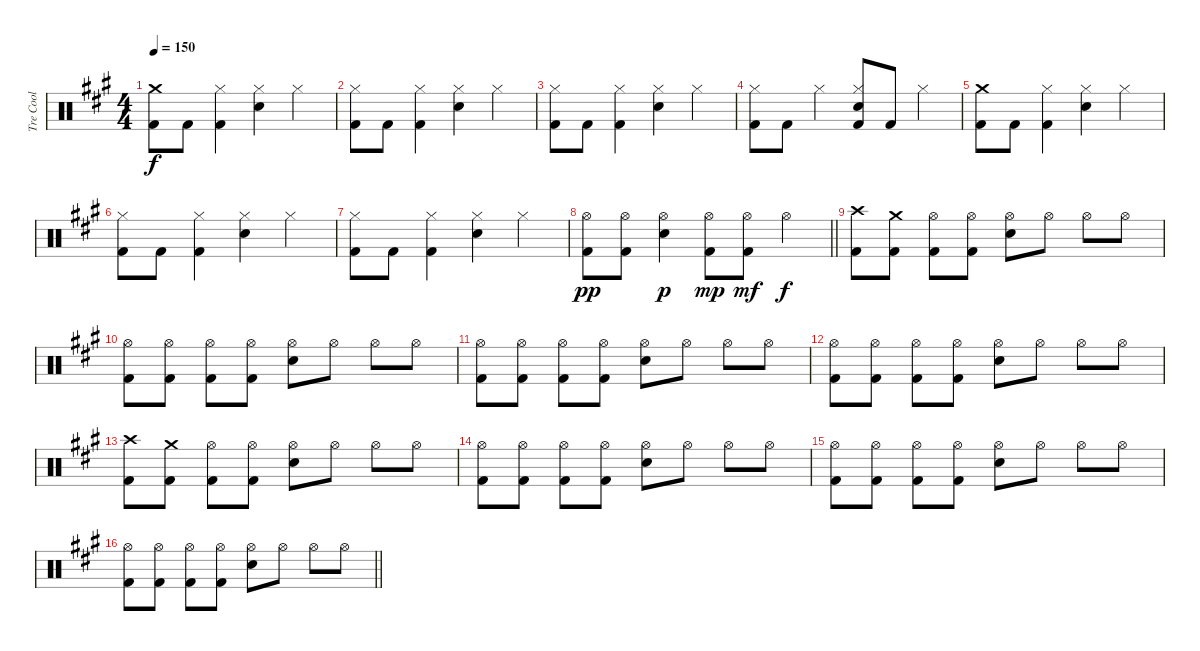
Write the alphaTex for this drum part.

\track ("Tre Cool" "Tre Cool") {instrument percussion}
\staff {score}
\articulation defaults
\ts (4 4)
\tempo 150
\clef neutral
\ks a
("Crash medium (hit)" "Kick (hit) 2").8{dy f} "Kick (hit) 2".8 ("Hi-Hat (closed)" "Kick (hit) 2").4 ("Hi-Hat (closed)" "Snare (hit) 2").4 "Hi-Hat (closed)".4 |
("Hi-Hat (closed)" "Kick (hit) 2").8 "Kick (hit) 2".8 ("Hi-Hat (closed)" "Kick (hit) 2").4 ("Hi-Hat (closed)" "Snare (hit) 2").4 "Hi-Hat (closed)".4 |
("Hi-Hat (closed)" "Kick (hit) 2").8 "Kick (hit) 2".8 ("Hi-Hat (closed)" "Kick (hit) 2").4 ("Hi-Hat (closed)" "Snare (hit) 2").4 "Hi-Hat (closed)".4 |
("Hi-Hat (closed)" "Kick (hit) 2").8 "Kick (hit) 2".8 "Hi-Hat (closed)".4 ("Hi-Hat (closed)" "Snare (hit) 2" "Kick (hit) 2").8 "Kick (hit) 2".8 "Hi-Hat (closed)".4 |
("Crash medium (hit)" "Kick (hit) 2").8 "Kick (hit) 2".8 ("Hi-Hat (closed)" "Kick (hit) 2").4 ("Hi-Hat (closed)" "Snare (hit) 2").4 "Hi-Hat (closed)".4 |
("Hi-Hat (closed)" "Kick (hit) 2").8 "Kick (hit) 2".8 ("Hi-Hat (closed)" "Kick (hit) 2").4 ("Hi-Hat (closed)" "Snare (hit) 2").4 "Hi-Hat (closed)".4 |
("Hi-Hat (closed)" "Kick (hit) 2").8 "Kick (hit) 2".8 ("Hi-Hat (closed)" "Kick (hit) 2").4 ("Hi-Hat (closed)" "Snare (hit) 2").4 "Hi-Hat (closed)".4 |
\barLineRight lightlight
("Hi-Hat (open)" "Kick (hit) 2").8{dy pp} ("Hi-Hat (open)" "Kick (hit) 2").8 ("Hi-Hat (open)" "Snare (hit) 2").4{dy p} ("Hi-Hat (open)" "Kick (hit) 2").8{dy mp} ("Hi-Hat (open)" "Kick (hit) 2").8{dy mf} "Hi-Hat (open)".4{dy f} |
("Crash high (hit)" "Kick (hit) 2").8 ("Crash medium (hit)" "Kick (hit) 2").8 ("Hi-Hat (open)" "Kick (hit) 2").8 ("Hi-Hat (open)" "Kick (hit) 2").8 ("Hi-Hat (open)" "Snare (hit) 2").8 "Hi-Hat (open)".8 "Hi-Hat (open)".8 "Hi-Hat (open)".8 |
("Hi-Hat (open)" "Kick (hit) 2").8 ("Hi-Hat (open)" "Kick (hit) 2").8 ("Hi-Hat (open)" "Kick (hit) 2").8 ("Hi-Hat (open)" "Kick (hit) 2").8 ("Hi-Hat (open)" "Snare (hit) 2").8 "Hi-Hat (open)".8 "Hi-Hat (open)".8 "Hi-Hat (open)".8 |
("Hi-Hat (open)" "Kick (hit) 2").8 ("Hi-Hat (open)" "Kick (hit) 2").8 ("Hi-Hat (open)" "Kick (hit) 2").8 ("Hi-Hat (open)" "Kick (hit) 2").8 ("Hi-Hat (open)" "Snare (hit) 2").8 "Hi-Hat (open)".8 "Hi-Hat (open)".8 "Hi-Hat (open)".8 |
("Hi-Hat (open)" "Kick (hit) 2").8 ("Hi-Hat (open)" "Kick (hit) 2").8 ("Hi-Hat (open)" "Kick (hit) 2").8 ("Hi-Hat (open)" "Kick (hit) 2").8 ("Hi-Hat (open)" "Snare (hit) 2").8 "Hi-Hat (open)".8 "Hi-Hat (open)".8 "Hi-Hat (open)".8 |
("Crash high (hit)" "Kick (hit) 2").8 ("Crash medium (hit)" "Kick (hit) 2").8 ("Hi-Hat (open)" "Kick (hit) 2").8 ("Hi-Hat (open)" "Kick (hit) 2").8 ("Hi-Hat (open)" "Snare (hit) 2").8 "Hi-Hat (open)".8 "Hi-Hat (open)".8 "Hi-Hat (open)".8 |
("Hi-Hat (open)" "Kick (hit) 2").8 ("Hi-Hat (open)" "Kick (hit) 2").8 ("Hi-Hat (open)" "Kick (hit) 2").8 ("Hi-Hat (open)" "Kick (hit) 2").8 ("Hi-Hat (open)" "Snare (hit) 2").8 "Hi-Hat (open)".8 "Hi-Hat (open)".8 "Hi-Hat (open)".8 |
("Hi-Hat (open)" "Kick (hit) 2").8 ("Hi-Hat (open)" "Kick (hit) 2").8 ("Hi-Hat (open)" "Kick (hit) 2").8 ("Hi-Hat (open)" "Kick (hit) 2").8 ("Hi-Hat (open)" "Snare (hit) 2").8 "Hi-Hat (open)".8 "Hi-Hat (open)".8 "Hi-Hat (open)".8 |
\barLineRight lightlight
("Hi-Hat (open)" "Kick (hit) 2").8 ("Hi-Hat (open)" "Kick (hit) 2").8 ("Hi-Hat (open)" "Kick (hit) 2").8 ("Hi-Hat (open)" "Kick (hit) 2").8 ("Hi-Hat (open)" "Snare (hit) 2").8 "Hi-Hat (open)".8 "Hi-Hat (open)".8 "Hi-Hat (open)".8
